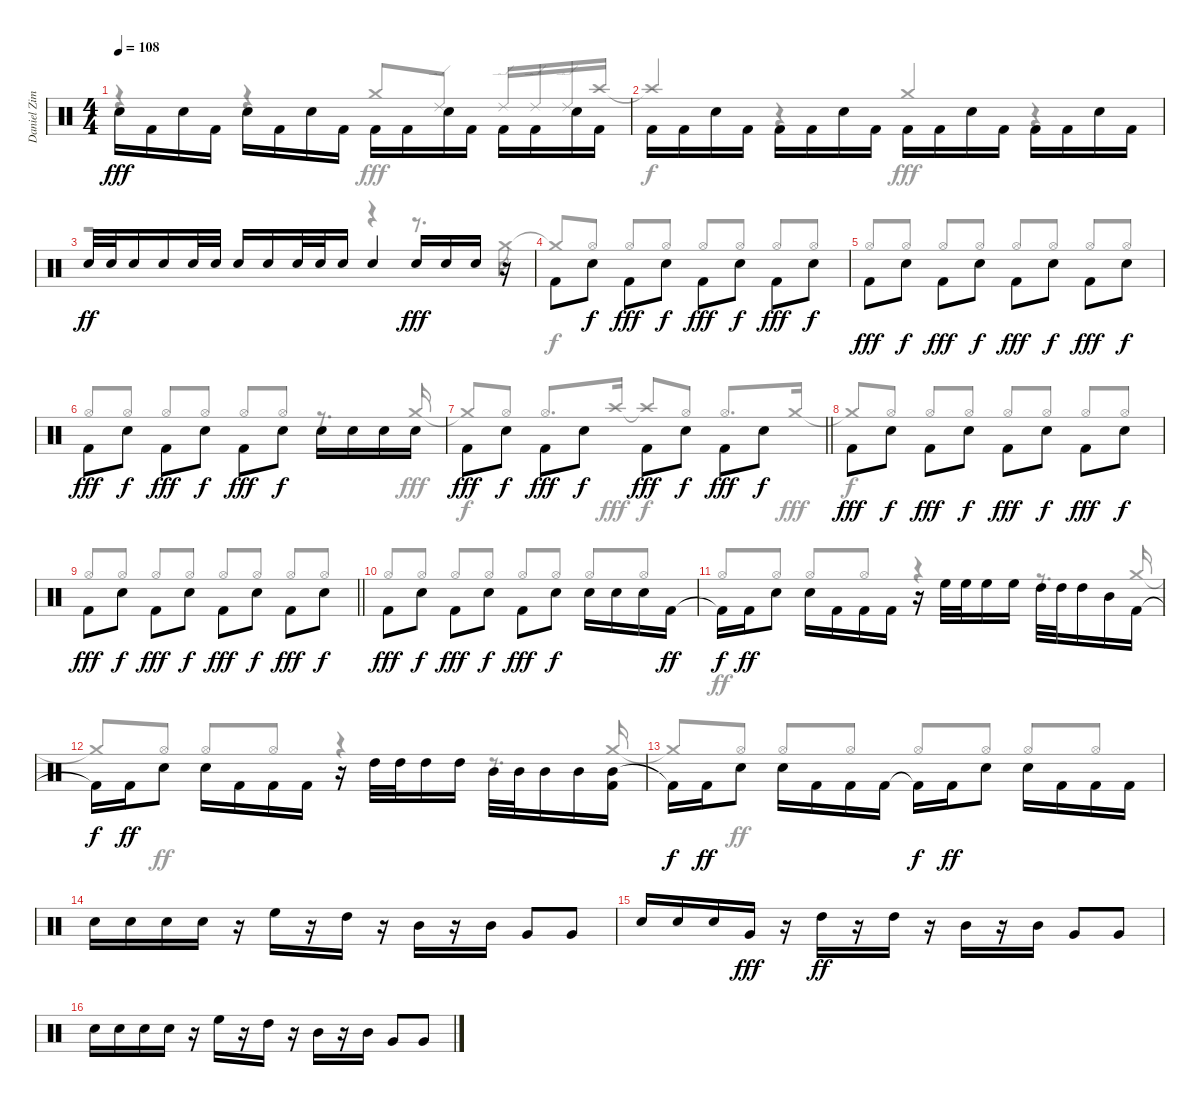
\track ("Daniel Zimmermann Drums" "Daniel Zim") {instrument percussion}
\staff {score}
\articulation defaults
\voice
\ts (4 4)
\tempo 108
\clef neutral
\ks c "Snare (hit) 2".16{dy fff beam Down} "Kick (hit) 2".16{beam Down} "Snare (hit) 2".16{beam Down} "Kick (hit) 2".16{beam Down} "Snare (hit) 2".16{beam Down} "Kick (hit) 2".16{beam Down} "Snare (hit) 2".16{beam Down} "Kick (hit) 2".16{beam Down} "Kick (hit) 2".16{beam Down} "Kick (hit) 2".16{beam Down} "Snare (hit) 2".16{beam Down} "Kick (hit) 2".16{beam Down} "Kick (hit) 2".16{beam Down} "Kick (hit) 2".16{beam Down} "Snare (hit) 2".16{beam Down} "Kick (hit) 2".16{beam Down}
|
"Kick (hit) 2".16{beam Down} "Kick (hit) 2".16{beam Down} "Snare (hit) 2".16{beam Down} "Kick (hit) 2".16{beam Down} "Kick (hit) 2".16{beam Down} "Kick (hit) 2".16{beam Down} "Snare (hit) 2".16{beam Down} "Kick (hit) 2".16{beam Down} "Kick (hit) 2".16{beam Down} "Kick (hit) 2".16{beam Down} "Snare (hit) 2".16{beam Down} "Kick (hit) 2".16{beam Down} "Kick (hit) 2".16{beam Down} "Kick (hit) 2".16{beam Down} "Snare (hit) 2".16{beam Down} "Kick (hit) 2".16{beam Down} |
"Snare (hit) 2".32{dy ff} "Snare (hit) 2".32 "Snare (hit) 2".16 "Snare (hit) 2".16 "Snare (hit) 2".32 "Snare (hit) 2".32 "Snare (hit) 2".16 "Snare (hit) 2".16 "Snare (hit) 2".32 "Snare (hit) 2".32 "Snare (hit) 2".16 "Snare (hit) 2".4 "Snare (hit) 2".16{dy fff} "Snare (hit) 2".16 "Snare (hit) 2".16 r.16 |
"Kick (hit) 2".8{beam Down} "Snare (hit) 2".8{dy f beam Down} "Kick (hit) 2".8{dy fff beam Down} "Snare (hit) 2".8{dy f beam Down} "Kick (hit) 2".8{dy fff beam Down} "Snare (hit) 2".8{dy f beam Down} "Kick (hit) 2".8{dy fff beam Down} "Snare (hit) 2".8{dy f beam Down} |
"Kick (hit) 2".8{dy fff beam Down} "Snare (hit) 2".8{dy f beam Down} "Kick (hit) 2".8{dy fff beam Down} "Snare (hit) 2".8{dy f beam Down} "Kick (hit) 2".8{dy fff beam Down} "Snare (hit) 2".8{dy f beam Down} "Kick (hit) 2".8{dy fff beam Down} "Snare (hit) 2".8{dy f beam Down} |
"Kick (hit) 2".8{dy fff beam Down} "Snare (hit) 2".8{dy f beam Down} "Kick (hit) 2".8{dy fff beam Down} "Snare (hit) 2".8{dy f beam Down} "Kick (hit) 2".8{dy fff beam Down} "Snare (hit) 2".8{dy f beam Down} "Snare (hit) 2".16{beam Down} "Snare (hit) 2".16{beam Down} "Snare (hit) 2".16{beam Down} "Snare (hit) 2".16{beam Down} |
\barLineRight lightlight "Kick (hit) 2".8{dy fff beam Down} "Snare (hit) 2".8{dy f beam Down} "Kick (hit) 2".8{dy fff beam Down} "Snare (hit) 2".8{dy f beam Down} "Kick (hit) 2".8{dy fff beam Down} "Snare (hit) 2".8{dy f beam Down} "Kick (hit) 2".8{dy fff beam Down} "Snare (hit) 2".8{dy f beam Down}
|
"Kick (hit) 2".8{dy fff beam Down} "Snare (hit) 2".8{dy f beam Down} "Kick (hit) 2".8{dy fff beam Down} "Snare (hit) 2".8{dy f beam Down} "Kick (hit) 2".8{dy fff beam Down} "Snare (hit) 2".8{dy f beam Down} "Kick (hit) 2".8{dy fff beam Down} "Snare (hit) 2".8{dy f beam Down} |
\barLineRight lightlight "Kick (hit) 2".8{dy fff beam Down} "Snare (hit) 2".8{dy f beam Down} "Kick (hit) 2".8{dy fff beam Down} "Snare (hit) 2".8{dy f beam Down} "Kick (hit) 2".8{dy fff beam Down} "Snare (hit) 2".8{dy f beam Down} "Kick (hit) 2".8{dy fff beam Down} "Snare (hit) 2".8{dy f beam Down}
|
"Kick (hit) 2".8{dy fff beam Down} "Snare (hit) 2".8{dy f beam Down} "Kick (hit) 2".8{dy fff beam Down} "Snare (hit) 2".8{dy f beam Down} "Kick (hit) 2".8{dy fff beam Down} "Snare (hit) 2".8{dy f beam Down} "Snare (hit) 2".16{beam Down} "Snare (hit) 2".16{beam Down} "Snare (hit) 2".16{beam Down} "Kick (hit) 2".16{dy ff beam Down} |
"Kick (hit) 2"{t}.16{dy f beam Down} "Kick (hit) 2".16{dy ff beam Down} "Snare (hit) 2".8{beam Down} "Snare (hit) 2".16{beam Down} "Kick (hit) 2".16{beam Down} "Kick (hit) 2".16{beam Down} "Kick (hit) 2".16{beam Down} r.16 "High Floor Tom (hit)".32{beam Down} "High Floor Tom (hit)".32{beam Down} "High Floor Tom (hit)".16{beam Down} "High Floor Tom (hit)".16{beam Down} "High Tom (hit)".32{beam Down} "High Tom (hit)".32{beam Down} "High Tom (hit)".16{beam Down} "Mid Tom (hit)".16{beam Down} "Kick (hit) 2".16{beam Down} |
"Kick (hit) 2"{t}.16{dy f beam Down} "Kick (hit) 2".16{dy ff beam Down} "Snare (hit) 2".8{beam Down} "Snare (hit) 2".16{beam Down} "Kick (hit) 2".16{beam Down} "Kick (hit) 2".16{beam Down} "Kick (hit) 2".16{beam Down} r.16 "High Tom (hit)".32{beam Down} "High Tom (hit)".32{beam Down} "High Tom (hit)".16{beam Down} "High Tom (hit)".16{beam Down} "Mid Tom (hit)".32{beam Down} "Mid Tom (hit)".32{beam Down} "Mid Tom (hit)".16{beam Down} "Mid Tom (hit)".16{beam Down} ("Mid Tom (hit)" "Kick (hit) 2").16{beam Down} |
"Kick (hit) 2"{t}.16{dy f beam Down} "Kick (hit) 2".16{dy ff beam Down} "Snare (hit) 2".8{beam Down} "Snare (hit) 2".16{beam Down} "Kick (hit) 2".16{beam Down} "Kick (hit) 2".16{beam Down} "Kick (hit) 2".16{beam Down} "Kick (hit) 2"{t}.16{dy f beam Down} "Kick (hit) 2".16{dy ff beam Down} "Snare (hit) 2".8{beam Down} "Snare (hit) 2".16{beam Down} "Kick (hit) 2".16{beam Down} "Kick (hit) 2".16{beam Down} "Kick (hit) 2".16{beam Down} |
"Snare (hit) 2".16 "Snare (hit) 2".16 "Snare (hit) 2".16 "Snare (hit) 2".16 r.16 "High Floor Tom (hit)".16 r.16 "High Tom (hit)".16 r.16 "Mid Tom (hit)".16 r.16 "Mid Tom (hit)".16 "Very Low Tom (hit)".8 "Very Low Tom (hit)".8 |
"Snare (hit) 2".16 "Snare (hit) 2".16 "Snare (hit) 2".16 "Very Low Tom (hit)".16{dy fff} r.16 "High Tom (hit)".16{dy ff} r.16 "High Tom (hit)".16 r.16 "Mid Tom (hit)".16 r.16 "Mid Tom (hit)".16 "Very Low Tom (hit)".8 "Very Low Tom (hit)".8 |
"Snare (hit) 2".16 "Snare (hit) 2".16 "Snare (hit) 2".16 "Snare (hit) 2".16 r.16 "High Floor Tom (hit)".16 r.16 "High Tom (hit)".16 r.16 "Mid Tom (hit)".16 r.16 "Mid Tom (hit)".16 "Very Low Tom (hit)".8 "Very Low Tom (hit)".8
\voice
\clef neutral
\ottava regular
\simile none
\ks c
r.4{dy fff} r.4 "Crash medium (hit)".8{beam Up} "Ride (edge) 2".8{beam Up} "Ride (edge) 2".16{beam Up} "Ride (edge) 2".16{beam Up} "Ride (edge) 2".16{beam Up} "Crash high (hit)".16{beam Up} |
"Crash high (hit)"{t}.4{dy f beam Up} r.4 "Crash medium (hit)".4{dy fff beam Up} r.4 |
r.2 r.4 r.8{d} "Crash medium (hit)".16 |
"Crash medium (hit)"{t}.8{dy f beam Up} "Hi-Hat (open)".8{beam Up} "Hi-Hat (open)".8{beam Up} "Hi-Hat (open)".8{beam Up} "Hi-Hat (open)".8{beam Up} "Hi-Hat (open)".8{beam Up} "Hi-Hat (open)".8{beam Up} "Hi-Hat (open)".8{beam Up} |
"Hi-Hat (open)".8{beam Up} "Hi-Hat (open)".8{beam Up} "Hi-Hat (open)".8{beam Up} "Hi-Hat (open)".8{beam Up} "Hi-Hat (open)".8{beam Up} "Hi-Hat (open)".8{beam Up} "Hi-Hat (open)".8{beam Up} "Hi-Hat (open)".8{beam Up} |
"Hi-Hat (open)".8{beam Up} "Hi-Hat (open)".8{beam Up} "Hi-Hat (open)".8{beam Up} "Hi-Hat (open)".8{beam Up} "Hi-Hat (open)".8{beam Up} "Hi-Hat (open)".8{beam Up} r.8{d beam Up} "Crash medium (hit)".16{dy fff beam Up} |
\barLineRight lightlight "Crash medium (hit)"{t}.8{dy f beam Up} "Hi-Hat (open)".8{beam Up} "Hi-Hat (open)".8{d beam Up} "Crash high (hit)".16{dy fff beam Up} "Crash high (hit)"{t}.8{dy f beam Up} "Hi-Hat (open)".8{beam Up} "Hi-Hat (open)".8{d beam Up} "Crash medium (hit)".16{dy fff beam Up}
|
"Crash medium (hit)"{t}.8{dy f beam Up} "Hi-Hat (open)".8{beam Up} "Hi-Hat (open)".8{beam Up} "Hi-Hat (open)".8{beam Up} "Hi-Hat (open)".8{beam Up} "Hi-Hat (open)".8{beam Up} "Hi-Hat (open)".8{beam Up} "Hi-Hat (open)".8{beam Up} |
\barLineRight lightlight "Hi-Hat (open)".8{beam Up} "Hi-Hat (open)".8{beam Up} "Hi-Hat (open)".8{beam Up} "Hi-Hat (open)".8{beam Up} "Hi-Hat (open)".8{beam Up} "Hi-Hat (open)".8{beam Up} "Hi-Hat (open)".8{beam Up} "Hi-Hat (open)".8{beam Up}
|
"Hi-Hat (open)".8{beam Up} "Hi-Hat (open)".8{beam Up} "Hi-Hat (open)".8{beam Up} "Hi-Hat (open)".8{beam Up} "Hi-Hat (open)".8{beam Up} "Hi-Hat (open)".8{beam Up} "Hi-Hat (open)".8{beam Up} "Hi-Hat (open)".8{beam Up} |
"Hi-Hat (open)".8{dy ff beam Up} "Hi-Hat (open)".8{beam Up} "Hi-Hat (open)".8{beam Up} "Hi-Hat (open)".8{beam Up} r.4 r.8{d} "Crash medium (hit)".16{beam Up} |
"Crash medium (hit)"{t}.8{dy f beam Up} "Hi-Hat (open)".8{dy ff beam Up} "Hi-Hat (open)".8{beam Up} "Hi-Hat (open)".8{beam Up} r.4 r.8{d} "Crash medium (hit)".16{beam Up} |
"Crash medium (hit)"{t}.8{dy f beam Up} "Hi-Hat (open)".8{dy ff beam Up} "Hi-Hat (open)".8{beam Up} "Hi-Hat (open)".8{beam Up} "Hi-Hat (open)".8{beam Up} "Hi-Hat (open)".8{beam Up} "Hi-Hat (open)".8{beam Up} "Hi-Hat (open)".8{beam Up} |
|
|
